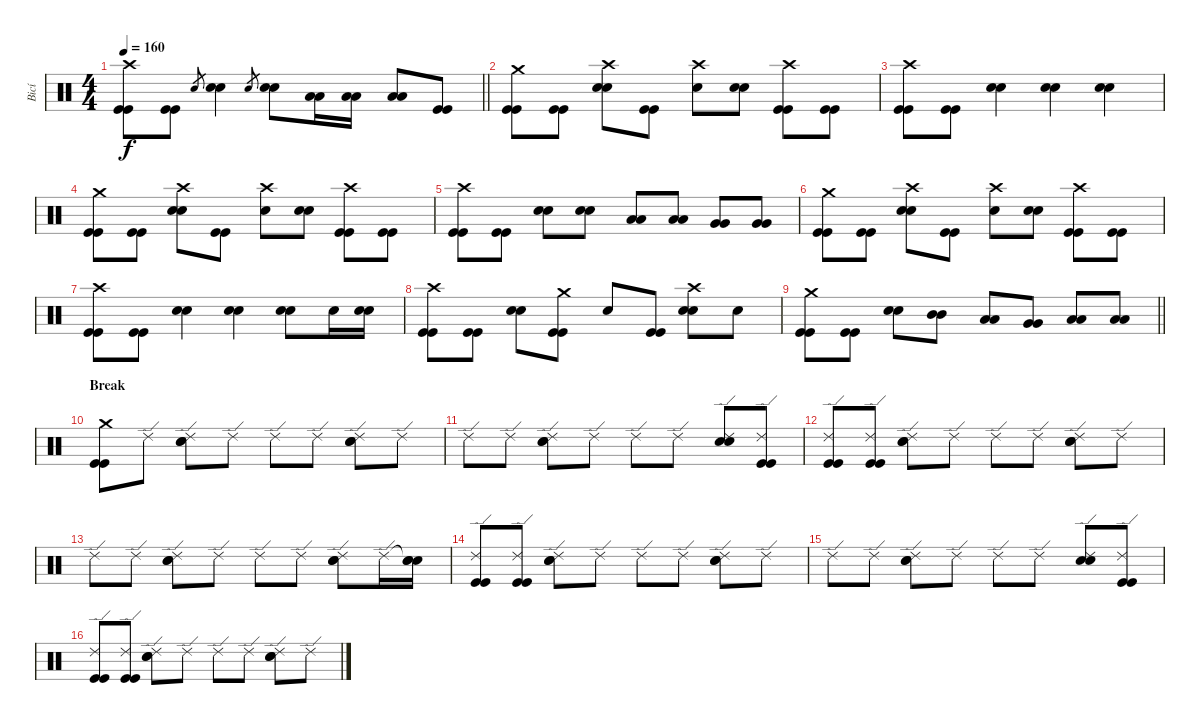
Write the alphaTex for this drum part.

\track ("Bicí" "Bicí") {instrument percussion}
\staff {score}
\articulation defaults
\ts (4 4)
\tempo 160
\clef neutral
\barLineRight lightlight
\ks c
("Crash high (hit)" "Kick (hit)" "Kick (hit)").8{dy f} ("Kick (hit)" "Kick (hit)").8 "Electric Snare (hit)".8{gr} ("Electric Snare (hit)" "Electric Snare (hit)").4 "Electric Snare (hit)".8{gr} ("Electric Snare (hit)" "Electric Snare (hit)").8 ("Low Tom (hit)" "Low Tom (hit)").16 ("Low Tom (hit)" "Low Tom (hit)").16 ("Low Tom (hit)" "Low Tom (hit)").8 ("Kick (hit)" "Kick (hit)").8 |
\section ("" "")
("Crash medium (hit)" "Kick (hit)" "Kick (hit)").8 ("Kick (hit)" "Kick (hit)").8 ("Crash high (hit)" "Electric Snare (hit)" "Electric Snare (hit)").8 ("Kick (hit)" "Kick (hit)").8 ("Crash high (hit)" "Snare (hit)").8 ("Electric Snare (hit)" "Electric Snare (hit)").8 ("Crash high (hit)" "Kick (hit)" "Kick (hit)").8 ("Kick (hit)" "Kick (hit)").8 |
("Crash high (hit)" "Kick (hit)" "Kick (hit)").8 ("Kick (hit)" "Kick (hit)").8 ("Electric Snare (hit)" "Electric Snare (hit)").4 ("Electric Snare (hit)" "Electric Snare (hit)").4 ("Electric Snare (hit)" "Electric Snare (hit)").4 |
("Crash medium (hit)" "Kick (hit)" "Kick (hit)").8 ("Kick (hit)" "Kick (hit)").8 ("Crash high (hit)" "Electric Snare (hit)" "Electric Snare (hit)").8 ("Kick (hit)" "Kick (hit)").8 ("Crash high (hit)" "Snare (hit)").8 ("Electric Snare (hit)" "Electric Snare (hit)").8 ("Crash high (hit)" "Kick (hit)" "Kick (hit)").8 ("Kick (hit)" "Kick (hit)").8 |
("Crash high (hit)" "Kick (hit)" "Kick (hit)").8 ("Kick (hit)" "Kick (hit)").8 ("Electric Snare (hit)" "Electric Snare (hit)").8 ("Electric Snare (hit)" "Electric Snare (hit)").8 ("Low Tom (hit)" "Low Tom (hit)").8 ("Low Tom (hit)" "Low Tom (hit)").8 ("Very Low Tom (hit)" "Very Low Tom (hit)").8 ("Very Low Tom (hit)" "Very Low Tom (hit)").8 |
("Crash medium (hit)" "Kick (hit)" "Kick (hit)").8 ("Kick (hit)" "Kick (hit)").8 ("Crash high (hit)" "Electric Snare (hit)" "Electric Snare (hit)").8 ("Kick (hit)" "Kick (hit)").8 ("Crash high (hit)" "Snare (hit)").8 ("Electric Snare (hit)" "Electric Snare (hit)").8 ("Crash high (hit)" "Kick (hit)" "Kick (hit)").8 ("Kick (hit)" "Kick (hit)").8 |
("Crash high (hit)" "Kick (hit)" "Kick (hit)").8 ("Kick (hit)" "Kick (hit)").8 ("Electric Snare (hit)" "Electric Snare (hit)").4 ("Electric Snare (hit)" "Electric Snare (hit)").4 ("Electric Snare (hit)" "Electric Snare (hit)").8 "Snare (hit)".16 ("Electric Snare (hit)" "Electric Snare (hit)").16 |
("Crash high (hit)" "Kick (hit)" "Kick (hit)").8 ("Kick (hit)" "Kick (hit)").8 ("Electric Snare (hit)" "Electric Snare (hit)").8 ("Crash medium (hit)" "Kick (hit)" "Kick (hit)").8 "Snare (hit)".8 ("Kick (hit)" "Kick (hit)").8 ("Crash high (hit)" "Electric Snare (hit)" "Electric Snare (hit)").8 "Snare (hit)".8 |
\barLineRight lightlight
("Crash medium (hit)" "Kick (hit)" "Kick (hit)").8 ("Kick (hit)" "Kick (hit)").8 ("Electric Snare (hit)" "Electric Snare (hit)").8 ("Mid Tom (hit)" "Mid Tom (hit)").8 ("Low Tom (hit)" "Low Tom (hit)").8 ("Very Low Tom (hit)" "Very Low Tom (hit)").8 ("Low Floor Tom (hit)" "Low Floor Tom (hit)").8 ("Low Floor Tom (hit)" "Low Floor Tom (hit)").8 |
\section ("" "Break")
("Crash medium (hit)" "Kick (hit)" "Kick (hit)").8 "Ride (edge) 2".8 ("Ride (edge) 2" "Electric Snare (hit)" "Electric Snare (hit)").8 "Ride (edge) 2".8 "Ride (edge) 2".8 "Ride (edge) 2".8 ("Ride (edge) 2" "Electric Snare (hit)" "Electric Snare (hit)").8 "Ride (edge) 2".8 |
"Ride (edge) 2".8 "Ride (edge) 2".8 ("Ride (edge) 2" "Electric Snare (hit)" "Electric Snare (hit)").8 "Ride (edge) 2".8 "Ride (edge) 2".8 "Ride (edge) 2".8 ("Ride (edge) 2" "Electric Snare (hit)" "Electric Snare (hit)").8 ("Ride (edge) 2" "Kick (hit)" "Kick (hit)").8 |
("Ride (edge) 2" "Kick (hit)" "Kick (hit)").8 ("Ride (edge) 2" "Kick (hit)" "Kick (hit)").8 ("Ride (edge) 2" "Electric Snare (hit)" "Electric Snare (hit)").8 "Ride (edge) 2".8 "Ride (edge) 2".8 "Ride (edge) 2".8 ("Ride (edge) 2" "Electric Snare (hit)" "Electric Snare (hit)").8 "Ride (edge) 2".8 |
"Ride (edge) 2".8 "Ride (edge) 2".8 ("Ride (edge) 2" "Electric Snare (hit)" "Electric Snare (hit)").8 "Ride (edge) 2".8 "Ride (edge) 2".8 "Ride (edge) 2".8 ("Ride (edge) 2" "Electric Snare (hit)" "Electric Snare (hit)").8 "Ride (edge) 2".16 ("Snare (hit)"{t} "Electric Snare (hit)" "Electric Snare (hit)").16 |
("Ride (edge) 2" "Kick (hit)" "Kick (hit)").8 ("Ride (edge) 2" "Kick (hit)" "Kick (hit)").8 ("Ride (edge) 2" "Electric Snare (hit)" "Electric Snare (hit)").8 "Ride (edge) 2".8 "Ride (edge) 2".8 "Ride (edge) 2".8 ("Ride (edge) 2" "Electric Snare (hit)" "Electric Snare (hit)").8 "Ride (edge) 2".8 |
"Ride (edge) 2".8 "Ride (edge) 2".8 ("Ride (edge) 2" "Electric Snare (hit)" "Electric Snare (hit)").8 "Ride (edge) 2".8 "Ride (edge) 2".8 "Ride (edge) 2".8 ("Ride (edge) 2" "Electric Snare (hit)" "Electric Snare (hit)").8 ("Ride (edge) 2" "Kick (hit)" "Kick (hit)").8 |
("Ride (edge) 2" "Kick (hit)" "Kick (hit)").8 ("Ride (edge) 2" "Kick (hit)" "Kick (hit)").8 ("Ride (edge) 2" "Electric Snare (hit)" "Electric Snare (hit)").8 "Ride (edge) 2".8 "Ride (edge) 2".8 "Ride (edge) 2".8 ("Ride (edge) 2" "Electric Snare (hit)" "Electric Snare (hit)").8 "Ride (edge) 2".8
